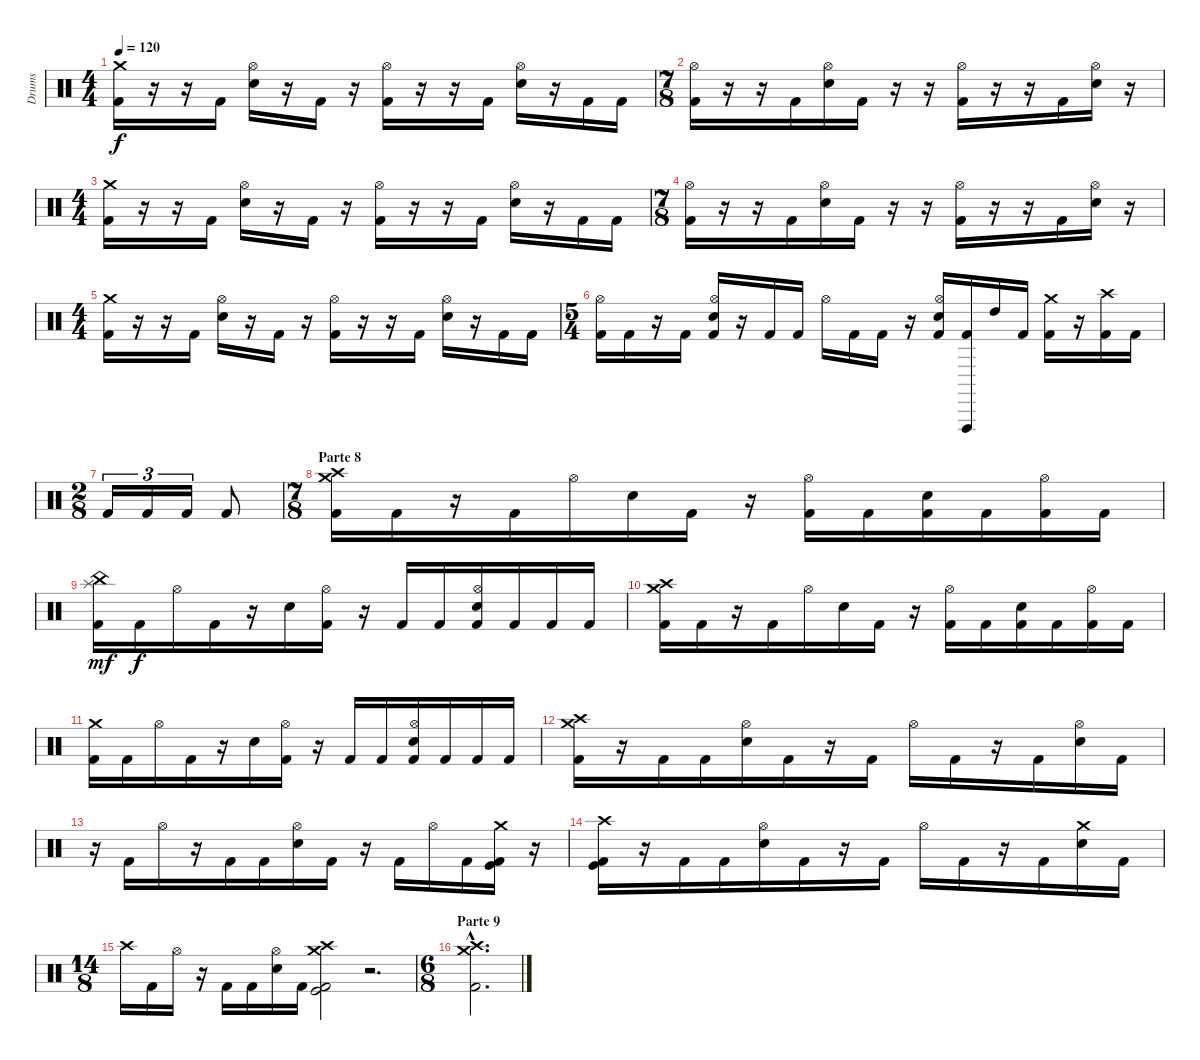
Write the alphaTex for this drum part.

\track ("Drums" "Drums") {instrument percussion}
\staff {score}
\articulation defaults
\ts (4 4)
\tempo 120
\clef neutral
\ks c
("Crash medium (hit)" "Kick (hit) 2").16{dy f} r.16 r.16 "Kick (hit) 2".16 ("Hi-Hat (open)" "Electric Snare (hit)").16 r.16 "Kick (hit) 2".16 r.16 ("Hi-Hat (open)" "Kick (hit) 2").16 r.16 r.16 "Kick (hit) 2".16 ("Hi-Hat (open)" "Electric Snare (hit)").16 r.16 "Kick (hit) 2".16 "Kick (hit) 2".16 |
\ts (7 8)
("Hi-Hat (open)" "Kick (hit) 2").16 r.16 r.16 "Kick (hit) 2".16 ("Hi-Hat (open)" "Electric Snare (hit)").16 "Kick (hit) 2".16 r.16 r.16 ("Hi-Hat (open)" "Kick (hit) 2").16 r.16 r.16 "Kick (hit) 2".16 ("Hi-Hat (open)" "Electric Snare (hit)").16 r.16 |
\ts (4 4)
("Crash medium (hit)" "Kick (hit) 2").16 r.16 r.16 "Kick (hit) 2".16 ("Hi-Hat (open)" "Electric Snare (hit)").16 r.16 "Kick (hit) 2".16 r.16 ("Hi-Hat (open)" "Kick (hit) 2").16 r.16 r.16 "Kick (hit) 2".16 ("Hi-Hat (open)" "Electric Snare (hit)").16 r.16 "Kick (hit) 2".16 "Kick (hit) 2".16 |
\ts (7 8)
("Hi-Hat (open)" "Kick (hit) 2").16 r.16 r.16 "Kick (hit) 2".16 ("Hi-Hat (open)" "Electric Snare (hit)").16 "Kick (hit) 2".16 r.16 r.16 ("Hi-Hat (open)" "Kick (hit) 2").16 r.16 r.16 "Kick (hit) 2".16 ("Hi-Hat (open)" "Electric Snare (hit)").16 r.16 |
\ts (4 4)
("Crash medium (hit)" "Kick (hit) 2").16 r.16 r.16 "Kick (hit) 2".16 ("Hi-Hat (open)" "Electric Snare (hit)").16 r.16 "Kick (hit) 2".16 r.16 ("Hi-Hat (open)" "Kick (hit) 2").16 r.16 r.16 "Kick (hit) 2".16 ("Hi-Hat (open)" "Electric Snare (hit)").16 r.16 "Kick (hit) 2".16 "Kick (hit) 2".16 |
\ts (5 4)
("Hi-Hat (open)" "Kick (hit) 2").16 "Kick (hit) 2".16 r.16 "Kick (hit) 2".16 ("Hi-Hat (open)" "Electric Snare (hit)" "Kick (hit) 2").16 r.16 "Kick (hit) 2".16 "Kick (hit) 2".16 "Hi-Hat (open)".16 "Kick (hit) 2".16 "Kick (hit) 2".16 r.16 ("Hi-Hat (open)" "Electric Snare (hit)" "Kick (hit) 2").16 ("Vibraslap (hit)" "Kick (hit) 2").16 "High Tom (hit)".16 "Kick (hit) 2".16 ("Crash medium (hit)" "Kick (hit) 2").16 r.16 ("Crash high (hit)" "Kick (hit) 2").16 "Kick (hit) 2".16 |
\ts (2 8)
"Kick (hit) 2".16{tu (3 2)} "Kick (hit) 2".16{tu (3 2)} "Kick (hit) 2".16{tu (3 2)} "Kick (hit) 2".8 |
\ts (7 8)
\section ("" "Parte 8")
("Crash medium (hit)" "Crash high (hit)" "Kick (hit) 2").16 "Kick (hit) 2".16 r.16 "Kick (hit) 2".16 "Hi-Hat (open)".16 "Electric Snare (hit)".16 "Kick (hit) 2".16 r.16 ("Hi-Hat (open)" "Kick (hit) 2").16 "Kick (hit) 2".16 ("Electric Snare (hit)" "Kick (hit) 2").16 "Kick (hit) 2".16 ("Hi-Hat (open)" "Kick (hit) 2").16 "Kick (hit) 2".16 |
("China (hit)" "Splash (hit)" "Kick (hit) 2").16{dy mf} "Kick (hit) 2".16{dy f} "Hi-Hat (open)".16 "Kick (hit) 2".16 r.16 "Electric Snare (hit)".16 ("Hi-Hat (open)" "Kick (hit) 2").16 r.16 "Kick (hit) 2".16 "Kick (hit) 2".16 ("Hi-Hat (open)" "Electric Snare (hit)" "Kick (hit) 2").16 "Kick (hit) 2".16 "Kick (hit) 2".16 "Kick (hit) 2".16 |
("Crash medium (hit)" "Crash high (hit)" "Kick (hit) 2").16 "Kick (hit) 2".16 r.16 "Kick (hit) 2".16 "Hi-Hat (open)".16 "Electric Snare (hit)".16 "Kick (hit) 2".16 r.16 ("Hi-Hat (open)" "Kick (hit) 2").16 "Kick (hit) 2".16 ("Electric Snare (hit)" "Kick (hit) 2").16 "Kick (hit) 2".16 ("Hi-Hat (open)" "Kick (hit) 2").16 "Kick (hit) 2".16 |
("Crash medium (hit)" "Kick (hit) 2").16 "Kick (hit) 2".16 "Hi-Hat (open)".16 "Kick (hit) 2".16 r.16 "Electric Snare (hit)".16 ("Hi-Hat (open)" "Kick (hit) 2").16 r.16 "Kick (hit) 2".16 "Kick (hit) 2".16 ("Hi-Hat (open)" "Electric Snare (hit)" "Kick (hit) 2").16 "Kick (hit) 2".16 "Kick (hit) 2".16 "Kick (hit) 2".16 |
("Crash medium (hit)" "Crash high (hit)" "Kick (hit) 2").16 r.16 "Kick (hit) 2".16 "Kick (hit) 2".16 ("Hi-Hat (open)" "Electric Snare (hit)").16 "Kick (hit) 2".16 r.16 "Kick (hit) 2".16 "Hi-Hat (open)".16 "Kick (hit) 2".16 r.16 "Kick (hit) 2".16 ("Hi-Hat (open)" "Electric Snare (hit)").16 "Kick (hit) 2".16 |
r.16 "Kick (hit) 2".16 "Hi-Hat (open)".16 r.16 "Kick (hit) 2".16 "Kick (hit) 2".16 ("Hi-Hat (open)" "Electric Snare (hit)").16 "Kick (hit) 2".16 r.16 "Kick (hit) 2".16 "Hi-Hat (open)".16 "Kick (hit) 2".16 ("Crash medium (hit)" "Kick (hit) 2" "Kick (hit)").16 r.16 |
("Crash high (hit)" "Kick (hit) 2" "Kick (hit)").16 r.16 "Kick (hit) 2".16 "Kick (hit) 2".16 ("Hi-Hat (open)" "Electric Snare (hit)").16 "Kick (hit) 2".16 r.16 "Kick (hit) 2".16 "Hi-Hat (open)".16 "Kick (hit) 2".16 r.16 "Kick (hit) 2".16 ("Crash medium (hit)" "Electric Snare (hit)").16 "Kick (hit) 2".16 |
\ts (14 8)
"Crash high (hit)".16 "Kick (hit) 2".16 "Hi-Hat (open)".16 r.16 "Kick (hit) 2".16 "Kick (hit) 2".16 ("Hi-Hat (open)" "Electric Snare (hit)").16 "Kick (hit) 2".16 ("Crash medium (hit)" "Crash high (hit)" "Kick (hit) 2" "Kick (hit)").2{volume 0} r.2{d} |
\ts (6 8)
\section ("" "Parte 9")
("Crash medium (hit)"{hac} "Crash high (hit)"{hac} "Kick (hit) 2"{hac}).2{d volume 11}
